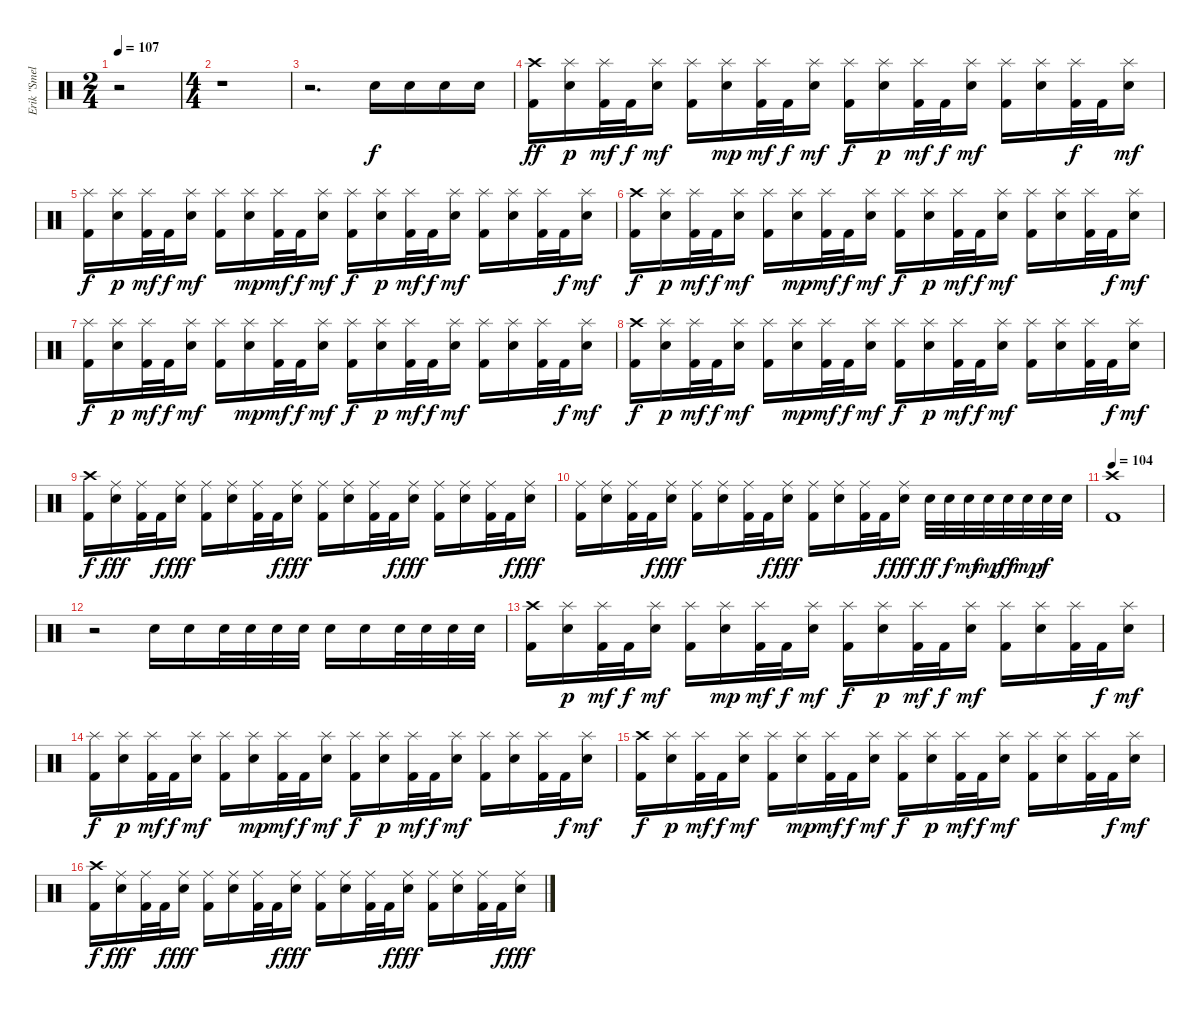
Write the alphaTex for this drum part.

\track ("Erik \"Smelly\" - Drums" "Erik \"Smel") {instrument percussion}
\staff {score}
\articulation defaults
\ts (2 4)
\tempo 107
\clef neutral
\ks c
r.2{dy f} |
\ts (4 4)
r.1 |
r.2{d} "Electric Snare (hit)".16 "Electric Snare (hit)".16 "Electric Snare (hit)".16 "Electric Snare (hit)".16 |
("Crash high (hit)" "Kick (hit) 2").16{dy ff} ("Splash (hit)" "Electric Snare (hit)").16{dy p} ("Splash (hit)" "Kick (hit) 2").32{dy mf} "Kick (hit) 2".32{dy f} ("Splash (hit)" "Electric Snare (hit)").16{dy mf} ("Splash (hit)" "Kick (hit) 2").16 ("Splash (hit)" "Electric Snare (hit)").16{dy mp} ("Splash (hit)" "Kick (hit) 2").32{dy mf} "Kick (hit) 2".32{dy f} ("Splash (hit)" "Electric Snare (hit)").16{dy mf} ("Splash (hit)" "Kick (hit) 2").16{dy f} ("Splash (hit)" "Electric Snare (hit)").16{dy p} ("Splash (hit)" "Kick (hit) 2").32{dy mf} "Kick (hit) 2".32{dy f} ("Splash (hit)" "Electric Snare (hit)").16{dy mf} ("Splash (hit)" "Kick (hit) 2").16 ("Splash (hit)" "Electric Snare (hit)").16 ("Splash (hit)" "Kick (hit) 2").32{dy f} "Kick (hit) 2".32 ("Splash (hit)" "Electric Snare (hit)").16{dy mf} |
("Splash (hit)" "Kick (hit) 2").16{dy f} ("Splash (hit)" "Electric Snare (hit)").16{dy p} ("Splash (hit)" "Kick (hit) 2").32{dy mf} "Kick (hit) 2".32{dy f} ("Splash (hit)" "Electric Snare (hit)").16{dy mf} ("Splash (hit)" "Kick (hit) 2").16 ("Splash (hit)" "Electric Snare (hit)").16{dy mp} ("Splash (hit)" "Kick (hit) 2").32{dy mf} "Kick (hit) 2".32{dy f} ("Splash (hit)" "Electric Snare (hit)").16{dy mf} ("Splash (hit)" "Kick (hit) 2").16{dy f} ("Splash (hit)" "Electric Snare (hit)").16{dy p} ("Splash (hit)" "Kick (hit) 2").32{dy mf} "Kick (hit) 2".32{dy f} ("Splash (hit)" "Electric Snare (hit)").16{dy mf} ("Splash (hit)" "Kick (hit) 2").16 ("Splash (hit)" "Electric Snare (hit)").16 ("Splash (hit)" "Kick (hit) 2").32 "Kick (hit) 2".32{dy f} ("Splash (hit)" "Electric Snare (hit)").16{dy mf} |
("Crash high (hit)" "Kick (hit) 2").16{dy f} ("Splash (hit)" "Electric Snare (hit)").16{dy p} ("Splash (hit)" "Kick (hit) 2").32{dy mf} "Kick (hit) 2".32{dy f} ("Splash (hit)" "Electric Snare (hit)").16{dy mf} ("Splash (hit)" "Kick (hit) 2").16 ("Splash (hit)" "Electric Snare (hit)").16{dy mp} ("Splash (hit)" "Kick (hit) 2").32{dy mf} "Kick (hit) 2".32{dy f} ("Splash (hit)" "Electric Snare (hit)").16{dy mf} ("Splash (hit)" "Kick (hit) 2").16{dy f} ("Splash (hit)" "Electric Snare (hit)").16{dy p} ("Splash (hit)" "Kick (hit) 2").32{dy mf} "Kick (hit) 2".32{dy f} ("Splash (hit)" "Electric Snare (hit)").16{dy mf} ("Splash (hit)" "Kick (hit) 2").16 ("Splash (hit)" "Electric Snare (hit)").16 ("Splash (hit)" "Kick (hit) 2").32 "Kick (hit) 2".32{dy f} ("Splash (hit)" "Electric Snare (hit)").16{dy mf} |
("Splash (hit)" "Kick (hit) 2").16{dy f} ("Splash (hit)" "Electric Snare (hit)").16{dy p} ("Splash (hit)" "Kick (hit) 2").32{dy mf} "Kick (hit) 2".32{dy f} ("Splash (hit)" "Electric Snare (hit)").16{dy mf} ("Splash (hit)" "Kick (hit) 2").16 ("Splash (hit)" "Electric Snare (hit)").16{dy mp} ("Splash (hit)" "Kick (hit) 2").32{dy mf} "Kick (hit) 2".32{dy f} ("Splash (hit)" "Electric Snare (hit)").16{dy mf} ("Splash (hit)" "Kick (hit) 2").16{dy f} ("Splash (hit)" "Electric Snare (hit)").16{dy p} ("Splash (hit)" "Kick (hit) 2").32{dy mf} "Kick (hit) 2".32{dy f} ("Splash (hit)" "Electric Snare (hit)").16{dy mf} ("Splash (hit)" "Kick (hit) 2").16 ("Splash (hit)" "Electric Snare (hit)").16 ("Splash (hit)" "Kick (hit) 2").32 "Kick (hit) 2".32{dy f} ("Splash (hit)" "Electric Snare (hit)").16{dy mf} |
("Crash high (hit)" "Kick (hit) 2").16{dy f} ("Splash (hit)" "Electric Snare (hit)").16{dy p} ("Splash (hit)" "Kick (hit) 2").32{dy mf} "Kick (hit) 2".32{dy f} ("Splash (hit)" "Electric Snare (hit)").16{dy mf} ("Splash (hit)" "Kick (hit) 2").16 ("Splash (hit)" "Electric Snare (hit)").16{dy mp} ("Splash (hit)" "Kick (hit) 2").32{dy mf} "Kick (hit) 2".32{dy f} ("Splash (hit)" "Electric Snare (hit)").16{dy mf} ("Splash (hit)" "Kick (hit) 2").16{dy f} ("Splash (hit)" "Electric Snare (hit)").16{dy p} ("Splash (hit)" "Kick (hit) 2").32{dy mf} "Kick (hit) 2".32{dy f} ("Splash (hit)" "Electric Snare (hit)").16{dy mf} ("Splash (hit)" "Kick (hit) 2").16 ("Splash (hit)" "Electric Snare (hit)").16 ("Splash (hit)" "Kick (hit) 2").32 "Kick (hit) 2".32{dy f} ("Splash (hit)" "Electric Snare (hit)").16{dy mf} |
("Crash high (hit)" "Kick (hit) 2").16{dy f} ("Ride (middle)" "Electric Snare (hit)").16{dy fff} ("Ride (middle)" "Kick (hit) 2").32 "Kick (hit) 2".32{dy f} ("Ride (middle)" "Electric Snare (hit)").16{dy fff} ("Ride (middle)" "Kick (hit) 2").16 ("Ride (middle)" "Electric Snare (hit)").16 ("Ride (middle)" "Kick (hit) 2").32 "Kick (hit) 2".32{dy f} ("Ride (middle)" "Electric Snare (hit)").16{dy fff} ("Ride (middle)" "Kick (hit) 2").16 ("Ride (middle)" "Electric Snare (hit)").16 ("Ride (middle)" "Kick (hit) 2").32 "Kick (hit) 2".32{dy f} ("Ride (middle)" "Electric Snare (hit)").16{dy fff} ("Ride (middle)" "Kick (hit) 2").16 ("Ride (middle)" "Electric Snare (hit)").16 ("Ride (middle)" "Kick (hit) 2").32 "Kick (hit) 2".32{dy f} ("Ride (middle)" "Electric Snare (hit)").16{dy fff} |
("Ride (middle)" "Kick (hit) 2").16 ("Ride (middle)" "Electric Snare (hit)").16 ("Ride (middle)" "Kick (hit) 2").32 "Kick (hit) 2".32{dy f} ("Ride (middle)" "Electric Snare (hit)").16{dy fff} ("Ride (middle)" "Kick (hit) 2").16 ("Ride (middle)" "Electric Snare (hit)").16 ("Ride (middle)" "Kick (hit) 2").32 "Kick (hit) 2".32{dy f} ("Ride (middle)" "Electric Snare (hit)").16{dy fff} ("Ride (middle)" "Kick (hit) 2").16 ("Ride (middle)" "Electric Snare (hit)").16 ("Ride (middle)" "Kick (hit) 2").32 "Kick (hit) 2".32{dy f} ("Ride (middle)" "Electric Snare (hit)").16{dy fff} "Electric Snare (hit)".32{dy ff} "Electric Snare (hit)".32{dy f} "Electric Snare (hit)".32{dy mf} "Electric Snare (hit)".32{dy mp} "Electric Snare (hit)".32{dy ff} "Electric Snare (hit)".32{dy mp} "Electric Snare (hit)".32{dy f} "Electric Snare (hit)".32 |
\tempo 104
("Crash high (hit)" "Kick (hit) 2").1 |
r.2 "Electric Snare (hit)".16 "Electric Snare (hit)".16 "Electric Snare (hit)".32 "Electric Snare (hit)".32 "Electric Snare (hit)".32 "Electric Snare (hit)".32 "Electric Snare (hit)".16 "Electric Snare (hit)".16 "Electric Snare (hit)".32 "Electric Snare (hit)".32 "Electric Snare (hit)".32 "Electric Snare (hit)".32 |
("Crash high (hit)" "Kick (hit) 2").16 ("Splash (hit)" "Electric Snare (hit)").16{dy p} ("Splash (hit)" "Kick (hit) 2").32{dy mf} "Kick (hit) 2".32{dy f} ("Splash (hit)" "Electric Snare (hit)").16{dy mf} ("Splash (hit)" "Kick (hit) 2").16 ("Splash (hit)" "Electric Snare (hit)").16{dy mp} ("Splash (hit)" "Kick (hit) 2").32{dy mf} "Kick (hit) 2".32{dy f} ("Splash (hit)" "Electric Snare (hit)").16{dy mf} ("Splash (hit)" "Kick (hit) 2").16{dy f} ("Splash (hit)" "Electric Snare (hit)").16{dy p} ("Splash (hit)" "Kick (hit) 2").32{dy mf} "Kick (hit) 2".32{dy f} ("Splash (hit)" "Electric Snare (hit)").16{dy mf} ("Splash (hit)" "Kick (hit) 2").16 ("Splash (hit)" "Electric Snare (hit)").16 ("Splash (hit)" "Kick (hit) 2").32 "Kick (hit) 2".32{dy f} ("Splash (hit)" "Electric Snare (hit)").16{dy mf} |
("Splash (hit)" "Kick (hit) 2").16{dy f} ("Splash (hit)" "Electric Snare (hit)").16{dy p} ("Splash (hit)" "Kick (hit) 2").32{dy mf} "Kick (hit) 2".32{dy f} ("Splash (hit)" "Electric Snare (hit)").16{dy mf} ("Splash (hit)" "Kick (hit) 2").16 ("Splash (hit)" "Electric Snare (hit)").16{dy mp} ("Splash (hit)" "Kick (hit) 2").32{dy mf} "Kick (hit) 2".32{dy f} ("Splash (hit)" "Electric Snare (hit)").16{dy mf} ("Splash (hit)" "Kick (hit) 2").16{dy f} ("Splash (hit)" "Electric Snare (hit)").16{dy p} ("Splash (hit)" "Kick (hit) 2").32{dy mf} "Kick (hit) 2".32{dy f} ("Splash (hit)" "Electric Snare (hit)").16{dy mf} ("Splash (hit)" "Kick (hit) 2").16 ("Splash (hit)" "Electric Snare (hit)").16 ("Splash (hit)" "Kick (hit) 2").32 "Kick (hit) 2".32{dy f} ("Splash (hit)" "Electric Snare (hit)").16{dy mf} |
("Crash high (hit)" "Kick (hit) 2").16{dy f} ("Splash (hit)" "Electric Snare (hit)").16{dy p} ("Splash (hit)" "Kick (hit) 2").32{dy mf} "Kick (hit) 2".32{dy f} ("Splash (hit)" "Electric Snare (hit)").16{dy mf} ("Splash (hit)" "Kick (hit) 2").16 ("Splash (hit)" "Electric Snare (hit)").16{dy mp} ("Splash (hit)" "Kick (hit) 2").32{dy mf} "Kick (hit) 2".32{dy f} ("Splash (hit)" "Electric Snare (hit)").16{dy mf} ("Splash (hit)" "Kick (hit) 2").16{dy f} ("Splash (hit)" "Electric Snare (hit)").16{dy p} ("Splash (hit)" "Kick (hit) 2").32{dy mf} "Kick (hit) 2".32{dy f} ("Splash (hit)" "Electric Snare (hit)").16{dy mf} ("Splash (hit)" "Kick (hit) 2").16 ("Splash (hit)" "Electric Snare (hit)").16 ("Splash (hit)" "Kick (hit) 2").32 "Kick (hit) 2".32{dy f} ("Splash (hit)" "Electric Snare (hit)").16{dy mf} |
("Crash high (hit)" "Kick (hit) 2").16{dy f} ("Ride (middle)" "Electric Snare (hit)").16{dy fff} ("Ride (middle)" "Kick (hit) 2").32 "Kick (hit) 2".32{dy f} ("Ride (middle)" "Electric Snare (hit)").16{dy fff} ("Ride (middle)" "Kick (hit) 2").16 ("Ride (middle)" "Electric Snare (hit)").16 ("Ride (middle)" "Kick (hit) 2").32 "Kick (hit) 2".32{dy f} ("Ride (middle)" "Electric Snare (hit)").16{dy fff} ("Ride (middle)" "Kick (hit) 2").16 ("Ride (middle)" "Electric Snare (hit)").16 ("Ride (middle)" "Kick (hit) 2").32 "Kick (hit) 2".32{dy f} ("Ride (middle)" "Electric Snare (hit)").16{dy fff} ("Ride (middle)" "Kick (hit) 2").16 ("Ride (middle)" "Electric Snare (hit)").16 ("Ride (middle)" "Kick (hit) 2").32 "Kick (hit) 2".32{dy f} ("Ride (middle)" "Electric Snare (hit)").16{dy fff}
